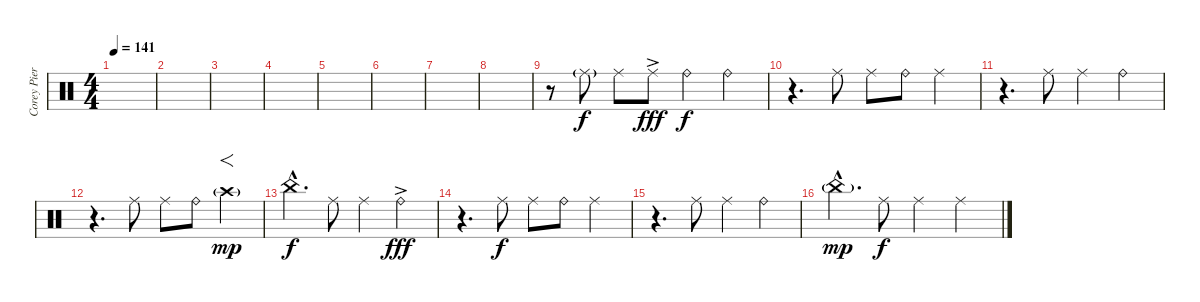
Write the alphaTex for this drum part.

\track ("Corey Pierce (Drums)" "Corey Pier") {instrument percussion}
\staff {score}
\articulation defaults
\ts (4 4)
\tempo 141
\clef neutral
\ks c
|
|
|
|
|
|
|
|
r.8 "Ride (middle)"{g}.8 "Ride (middle)".8{dy f} "Ride (middle)"{ac}.8{dy fff} "Ride (bell)".4{dy f} "Ride (bell)".4 |
r.4{d} "Ride (middle)".8 "Ride (middle)".8 "Ride (bell)".8 "Ride (middle)".4 |
r.4{d} "Ride (middle)".8 "Ride (middle)".4 "Ride (bell)".4 |
r.4{d} "Ride (middle)".8 "Ride (middle)".8 "Ride (bell)".8 "Crash high (hit)"{g}.4{f dy mp} |
"China (hit)"{hac}.4{d dy f} "Ride (middle)".8 "Ride (middle)".4 "Ride (bell)"{ac}.4{dy fff} |
r.4{d} "Ride (middle)".8{dy f} "Ride (middle)".8 "Ride (bell)".8 "Ride (middle)".4 |
r.4{d} "Ride (middle)".8 "Ride (middle)".4 "Ride (bell)".4 |
"China (hit)"{g hac}.4{d dy mp} "Ride (middle)".8{dy f} "Ride (middle)".4 "Ride (middle)".4
